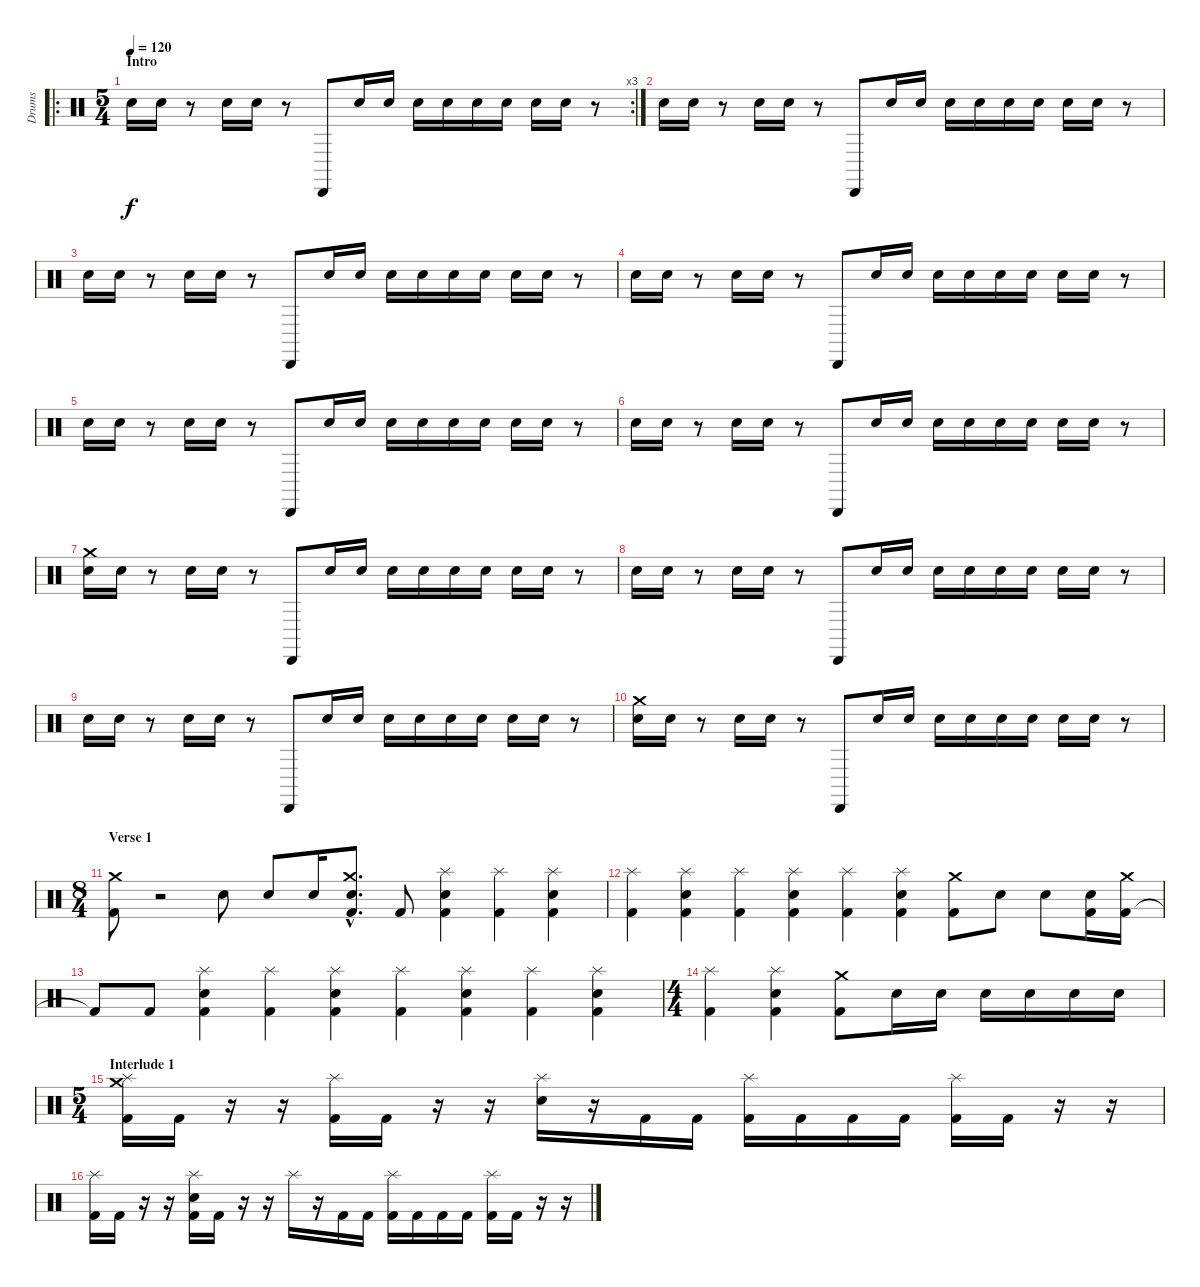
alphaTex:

\track ("Drums" "Drums") {instrument percussion}
\staff {score}
\articulation defaults
\ro
\rc 3
\ts (5 4)
\section ("" "Intro")
\tempo 120
\clef neutral
\ks c "Snare (hit) 2".16{dy f} "Snare (hit) 2".16
r.8 "Snare (hit) 2".16 "Snare (hit) 2".16 r.8 "Cabasa (hit)".8 "Snare (hit) 2".16 "Snare (hit) 2".16 "Snare (hit) 2".16 "Snare (hit) 2".16 "Snare (hit) 2".16 "Snare (hit) 2".16 "Snare (hit) 2".16 "Snare (hit) 2".16 r.8 |
"Snare (hit) 2".16 "Snare (hit) 2".16 r.8 "Snare (hit) 2".16 "Snare (hit) 2".16 r.8 "Cabasa (hit)".8 "Snare (hit) 2".16 "Snare (hit) 2".16 "Snare (hit) 2".16 "Snare (hit) 2".16 "Snare (hit) 2".16 "Snare (hit) 2".16 "Snare (hit) 2".16 "Snare (hit) 2".16 r.8 |
"Snare (hit) 2".16 "Snare (hit) 2".16 r.8 "Snare (hit) 2".16 "Snare (hit) 2".16 r.8 "Cabasa (hit)".8 "Snare (hit) 2".16 "Snare (hit) 2".16 "Snare (hit) 2".16 "Snare (hit) 2".16 "Snare (hit) 2".16 "Snare (hit) 2".16 "Snare (hit) 2".16 "Snare (hit) 2".16 r.8 |
"Snare (hit) 2".16 "Snare (hit) 2".16 r.8 "Snare (hit) 2".16 "Snare (hit) 2".16 r.8 "Cabasa (hit)".8 "Snare (hit) 2".16 "Snare (hit) 2".16 "Snare (hit) 2".16 "Snare (hit) 2".16 "Snare (hit) 2".16 "Snare (hit) 2".16 "Snare (hit) 2".16 "Snare (hit) 2".16 r.8 |
"Snare (hit) 2".16 "Snare (hit) 2".16 r.8 "Snare (hit) 2".16 "Snare (hit) 2".16 r.8 "Cabasa (hit)".8 "Snare (hit) 2".16 "Snare (hit) 2".16 "Snare (hit) 2".16 "Snare (hit) 2".16 "Snare (hit) 2".16 "Snare (hit) 2".16 "Snare (hit) 2".16 "Snare (hit) 2".16 r.8 |
"Snare (hit) 2".16 "Snare (hit) 2".16 r.8 "Snare (hit) 2".16 "Snare (hit) 2".16 r.8 "Cabasa (hit)".8 "Snare (hit) 2".16 "Snare (hit) 2".16 "Snare (hit) 2".16 "Snare (hit) 2".16 "Snare (hit) 2".16 "Snare (hit) 2".16 "Snare (hit) 2".16 "Snare (hit) 2".16 r.8 |
("Snare (hit) 2" "Crash medium (hit)").16 "Snare (hit) 2".16 r.8 "Snare (hit) 2".16 "Snare (hit) 2".16 r.8 "Cabasa (hit)".8 "Snare (hit) 2".16 "Snare (hit) 2".16 "Snare (hit) 2".16 "Snare (hit) 2".16 "Snare (hit) 2".16 "Snare (hit) 2".16 "Snare (hit) 2".16 "Snare (hit) 2".16 r.8 |
"Snare (hit) 2".16 "Snare (hit) 2".16 r.8 "Snare (hit) 2".16 "Snare (hit) 2".16 r.8 "Cabasa (hit)".8 "Snare (hit) 2".16 "Snare (hit) 2".16 "Snare (hit) 2".16 "Snare (hit) 2".16 "Snare (hit) 2".16 "Snare (hit) 2".16 "Snare (hit) 2".16 "Snare (hit) 2".16 r.8 |
"Snare (hit) 2".16 "Snare (hit) 2".16 r.8 "Snare (hit) 2".16 "Snare (hit) 2".16 r.8 "Cabasa (hit)".8 "Snare (hit) 2".16 "Snare (hit) 2".16 "Snare (hit) 2".16 "Snare (hit) 2".16 "Snare (hit) 2".16 "Snare (hit) 2".16 "Snare (hit) 2".16 "Snare (hit) 2".16 r.8 |
("Snare (hit) 2" "Crash medium (hit)").16 "Snare (hit) 2".16 r.8 "Snare (hit) 2".16 "Snare (hit) 2".16 r.8 "Cabasa (hit)".8 "Snare (hit) 2".16 "Snare (hit) 2".16 "Snare (hit) 2".16 "Snare (hit) 2".16 "Snare (hit) 2".16 "Snare (hit) 2".16 "Snare (hit) 2".16 "Snare (hit) 2".16 r.8 |
\ts (8 4)
\section ("" "Verse 1")
("Kick (hit) 2" "Crash medium (hit)").8 r.2 "Snare (hit) 2".8 "Snare (hit) 2".8 "Snare (hit) 2".16 ("Snare (hit) 2"{hac} "Kick (hit) 2"{hac} "Crash medium (hit)"{hac}).8{d} "Kick (hit) 2".8 ("Snare (hit) 2" "Splash (hit)" "Kick (hit) 2").4 ("Splash (hit)" "Kick (hit) 2").4 ("Snare (hit) 2" "Splash (hit)" "Kick (hit) 2").4 |
("Splash (hit)" "Kick (hit) 2").4 ("Snare (hit) 2" "Splash (hit)" "Kick (hit) 2").4 ("Splash (hit)" "Kick (hit) 2").4 ("Snare (hit) 2" "Splash (hit)" "Kick (hit) 2").4 ("Splash (hit)" "Kick (hit) 2").4 ("Snare (hit) 2" "Splash (hit)" "Kick (hit) 2").4 ("Crash medium (hit)" "Kick (hit) 2").8 "Snare (hit) 2".8 "Snare (hit) 2".8 ("Snare (hit) 2" "Kick (hit) 2").16 ("Kick (hit) 2" "Crash medium (hit)").16 |
"Kick (hit) 2"{t}.8 "Kick (hit) 2".8 ("Snare (hit) 2" "Splash (hit)" "Kick (hit) 2").4 ("Splash (hit)" "Kick (hit) 2").4 ("Snare (hit) 2" "Kick (hit) 2" "Splash (hit)").4 ("Kick (hit) 2" "Splash (hit)").4 ("Snare (hit) 2" "Splash (hit)" "Kick (hit) 2").4 ("Splash (hit)" "Kick (hit) 2").4 ("Snare (hit) 2" "Splash (hit)" "Kick (hit) 2").4 |
\ts (4 4)
("Splash (hit)" "Kick (hit) 2").4 ("Snare (hit) 2" "Splash (hit)" "Kick (hit) 2").4 ("Crash medium (hit)" "Kick (hit) 2").8 "Snare (hit) 2".16 "Snare (hit) 2".16 "Snare (hit) 2".16 "Snare (hit) 2".16 "Snare (hit) 2".16 "Snare (hit) 2".16 |
\ts (5 4)
\section ("" "Interlude 1")
("Kick (hit) 2" "Splash (hit)" "Crash medium (hit)").16 "Kick (hit) 2".16 r.16 r.16 ("Kick (hit) 2" "Splash (hit)").16 "Kick (hit) 2".16 r.16 r.16 ("Splash (hit)" "Snare (hit) 2").16 r.16 "Kick (hit) 2".16 "Kick (hit) 2".16 ("Kick (hit) 2" "Splash (hit)").16 "Kick (hit) 2".16 "Kick (hit) 2".16 "Kick (hit) 2".16 ("Kick (hit) 2" "Splash (hit)").16 "Kick (hit) 2".16 r.16 r.16 |
("Kick (hit) 2" "Splash (hit)").16 "Kick (hit) 2".16 r.16 r.16 ("Kick (hit) 2" "Splash (hit)" "Snare (hit) 2").16 "Kick (hit) 2".16 r.16 r.16 "Splash (hit)".16 r.16 "Kick (hit) 2".16 "Kick (hit) 2".16 ("Kick (hit) 2" "Splash (hit)").16 "Kick (hit) 2".16 "Kick (hit) 2".16 "Kick (hit) 2".16 ("Kick (hit) 2" "Splash (hit)").16 "Kick (hit) 2".16 r.16 r.16
